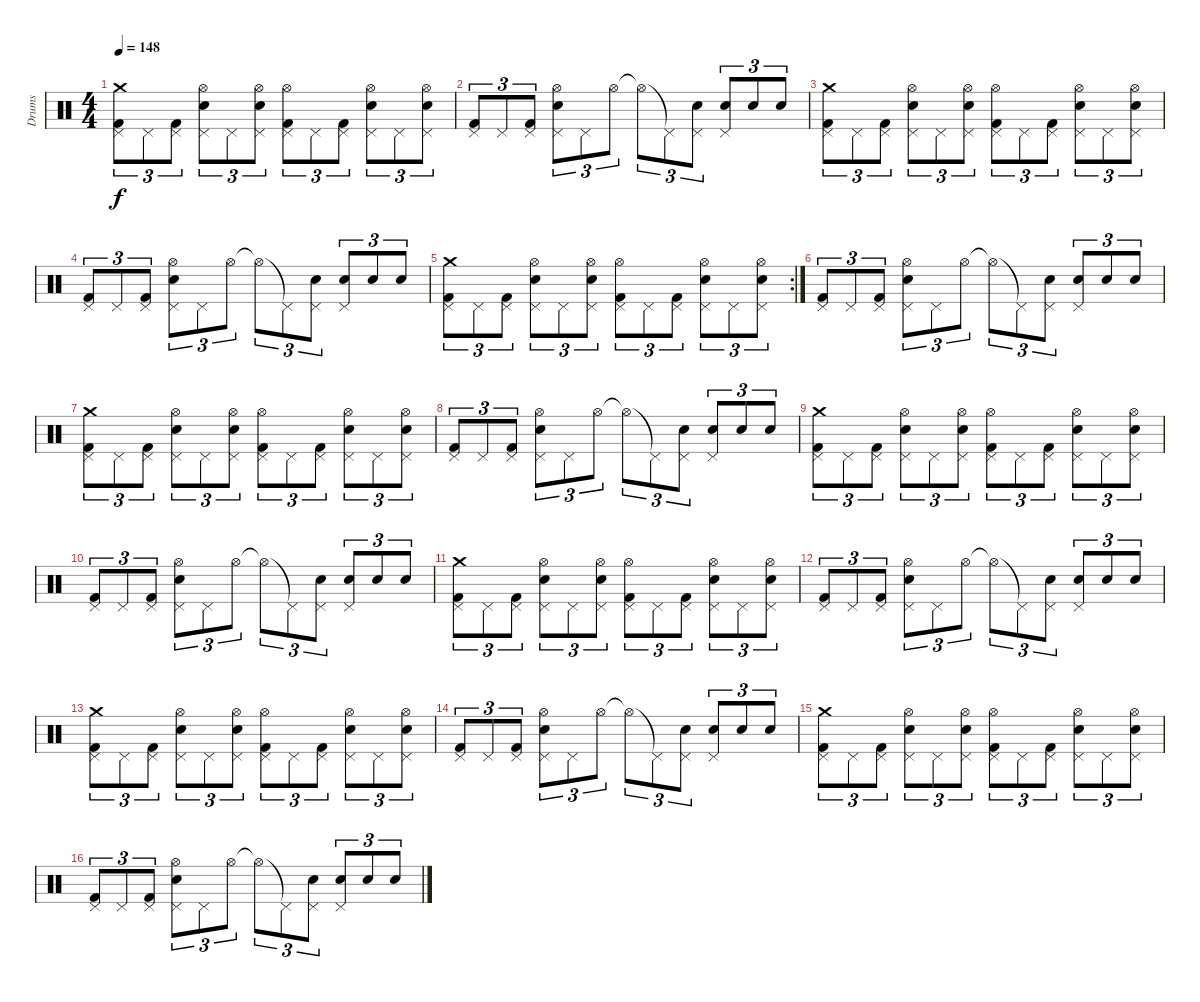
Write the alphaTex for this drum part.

\track ("Drums" "Drums") {instrument percussion}
\staff {score}
\articulation defaults
\ts (4 4)
\tempo 148
\clef neutral
\ks c
("Kick (hit) 2" "Pedal Hi-Hat (hit)" "Crash medium (hit)").8{tu (3 2) dy f} "Pedal Hi-Hat (hit)".8{tu (3 2)} ("Kick (hit) 2" "Pedal Hi-Hat (hit)").8{tu (3 2)} ("Snare (hit) 2" "Pedal Hi-Hat (hit)" "Hi-Hat (open)").8{tu (3 2)} "Pedal Hi-Hat (hit)".8{tu (3 2)} ("Snare (hit) 2" "Pedal Hi-Hat (hit)" "Hi-Hat (open)").8{tu (3 2)} ("Kick (hit) 2" "Pedal Hi-Hat (hit)" "Hi-Hat (open)").8{tu (3 2)} "Pedal Hi-Hat (hit)".8{tu (3 2)} ("Kick (hit) 2" "Pedal Hi-Hat (hit)").8{tu (3 2)} ("Snare (hit) 2" "Pedal Hi-Hat (hit)" "Hi-Hat (open)").8{tu (3 2)} "Pedal Hi-Hat (hit)".8{tu (3 2)} ("Snare (hit) 2" "Pedal Hi-Hat (hit)" "Hi-Hat (open)").8{tu (3 2)} |
("Kick (hit) 2" "Pedal Hi-Hat (hit)").8{tu (3 2)} "Pedal Hi-Hat (hit)".8{tu (3 2)} ("Kick (hit) 2" "Pedal Hi-Hat (hit)").8{tu (3 2)} ("Snare (hit) 2" "Pedal Hi-Hat (hit)" "Hi-Hat (open)").8{tu (3 2)} "Pedal Hi-Hat (hit)".8{tu (3 2)} "Hi-Hat (open)".8{tu (3 2)} "Hi-Hat (open)"{t}.8{tu (3 2)} "Pedal Hi-Hat (hit)"{t}.8{tu (3 2)} ("Snare (hit) 2" "Pedal Hi-Hat (hit)").8{tu (3 2)} ("Snare (hit) 2" "Pedal Hi-Hat (hit)").8{tu (3 2)} "Snare (hit) 2".8{tu (3 2)} "Snare (hit) 2".8{tu (3 2)} |
("Kick (hit) 2" "Pedal Hi-Hat (hit)" "Crash medium (hit)").8{tu (3 2)} "Pedal Hi-Hat (hit)".8{tu (3 2)} ("Kick (hit) 2" "Pedal Hi-Hat (hit)").8{tu (3 2)} ("Snare (hit) 2" "Pedal Hi-Hat (hit)" "Hi-Hat (open)").8{tu (3 2)} "Pedal Hi-Hat (hit)".8{tu (3 2)} ("Snare (hit) 2" "Pedal Hi-Hat (hit)" "Hi-Hat (open)").8{tu (3 2)} ("Kick (hit) 2" "Pedal Hi-Hat (hit)" "Hi-Hat (open)").8{tu (3 2)} "Pedal Hi-Hat (hit)".8{tu (3 2)} ("Kick (hit) 2" "Pedal Hi-Hat (hit)").8{tu (3 2)} ("Snare (hit) 2" "Pedal Hi-Hat (hit)" "Hi-Hat (open)").8{tu (3 2)} "Pedal Hi-Hat (hit)".8{tu (3 2)} ("Snare (hit) 2" "Pedal Hi-Hat (hit)" "Hi-Hat (open)").8{tu (3 2)} |
("Kick (hit) 2" "Pedal Hi-Hat (hit)").8{tu (3 2)} "Pedal Hi-Hat (hit)".8{tu (3 2)} ("Kick (hit) 2" "Pedal Hi-Hat (hit)").8{tu (3 2)} ("Snare (hit) 2" "Pedal Hi-Hat (hit)" "Hi-Hat (open)").8{tu (3 2)} "Pedal Hi-Hat (hit)".8{tu (3 2)} "Hi-Hat (open)".8{tu (3 2)} "Hi-Hat (open)"{t}.8{tu (3 2)} "Pedal Hi-Hat (hit)"{t}.8{tu (3 2)} ("Snare (hit) 2" "Pedal Hi-Hat (hit)").8{tu (3 2)} ("Snare (hit) 2" "Pedal Hi-Hat (hit)").8{tu (3 2)} "Snare (hit) 2".8{tu (3 2)} "Snare (hit) 2".8{tu (3 2)} |
\rc 2
("Kick (hit) 2" "Pedal Hi-Hat (hit)" "Crash medium (hit)").8{tu (3 2)} "Pedal Hi-Hat (hit)".8{tu (3 2)} ("Kick (hit) 2" "Pedal Hi-Hat (hit)").8{tu (3 2)} ("Snare (hit) 2" "Pedal Hi-Hat (hit)" "Hi-Hat (open)").8{tu (3 2)} "Pedal Hi-Hat (hit)".8{tu (3 2)} ("Snare (hit) 2" "Pedal Hi-Hat (hit)" "Hi-Hat (open)").8{tu (3 2)} ("Kick (hit) 2" "Pedal Hi-Hat (hit)" "Hi-Hat (open)").8{tu (3 2)} "Pedal Hi-Hat (hit)".8{tu (3 2)} ("Kick (hit) 2" "Pedal Hi-Hat (hit)").8{tu (3 2)} ("Snare (hit) 2" "Pedal Hi-Hat (hit)" "Hi-Hat (open)").8{tu (3 2)} "Pedal Hi-Hat (hit)".8{tu (3 2)} ("Snare (hit) 2" "Pedal Hi-Hat (hit)" "Hi-Hat (open)").8{tu (3 2)} |
("Kick (hit) 2" "Pedal Hi-Hat (hit)").8{tu (3 2)} "Pedal Hi-Hat (hit)".8{tu (3 2)} ("Kick (hit) 2" "Pedal Hi-Hat (hit)").8{tu (3 2)} ("Snare (hit) 2" "Pedal Hi-Hat (hit)" "Hi-Hat (open)").8{tu (3 2)} "Pedal Hi-Hat (hit)".8{tu (3 2)} "Hi-Hat (open)".8{tu (3 2)} "Hi-Hat (open)"{t}.8{tu (3 2)} "Pedal Hi-Hat (hit)"{t}.8{tu (3 2)} ("Snare (hit) 2" "Pedal Hi-Hat (hit)").8{tu (3 2)} ("Snare (hit) 2" "Pedal Hi-Hat (hit)").8{tu (3 2)} "Snare (hit) 2".8{tu (3 2)} "Snare (hit) 2".8{tu (3 2)} |
("Kick (hit) 2" "Pedal Hi-Hat (hit)" "Crash medium (hit)").8{tu (3 2)} "Pedal Hi-Hat (hit)".8{tu (3 2)} ("Kick (hit) 2" "Pedal Hi-Hat (hit)").8{tu (3 2)} ("Snare (hit) 2" "Pedal Hi-Hat (hit)" "Hi-Hat (open)").8{tu (3 2)} "Pedal Hi-Hat (hit)".8{tu (3 2)} ("Snare (hit) 2" "Pedal Hi-Hat (hit)" "Hi-Hat (open)").8{tu (3 2)} ("Kick (hit) 2" "Pedal Hi-Hat (hit)" "Hi-Hat (open)").8{tu (3 2)} "Pedal Hi-Hat (hit)".8{tu (3 2)} ("Kick (hit) 2" "Pedal Hi-Hat (hit)").8{tu (3 2)} ("Snare (hit) 2" "Pedal Hi-Hat (hit)" "Hi-Hat (open)").8{tu (3 2)} "Pedal Hi-Hat (hit)".8{tu (3 2)} ("Snare (hit) 2" "Pedal Hi-Hat (hit)" "Hi-Hat (open)").8{tu (3 2)} |
("Kick (hit) 2" "Pedal Hi-Hat (hit)").8{tu (3 2)} "Pedal Hi-Hat (hit)".8{tu (3 2)} ("Kick (hit) 2" "Pedal Hi-Hat (hit)").8{tu (3 2)} ("Snare (hit) 2" "Pedal Hi-Hat (hit)" "Hi-Hat (open)").8{tu (3 2)} "Pedal Hi-Hat (hit)".8{tu (3 2)} "Hi-Hat (open)".8{tu (3 2)} "Hi-Hat (open)"{t}.8{tu (3 2)} "Pedal Hi-Hat (hit)"{t}.8{tu (3 2)} ("Snare (hit) 2" "Pedal Hi-Hat (hit)").8{tu (3 2)} ("Snare (hit) 2" "Pedal Hi-Hat (hit)").8{tu (3 2)} "Snare (hit) 2".8{tu (3 2)} "Snare (hit) 2".8{tu (3 2)} |
("Kick (hit) 2" "Pedal Hi-Hat (hit)" "Crash medium (hit)").8{tu (3 2)} "Pedal Hi-Hat (hit)".8{tu (3 2)} ("Kick (hit) 2" "Pedal Hi-Hat (hit)").8{tu (3 2)} ("Snare (hit) 2" "Pedal Hi-Hat (hit)" "Hi-Hat (open)").8{tu (3 2)} "Pedal Hi-Hat (hit)".8{tu (3 2)} ("Snare (hit) 2" "Pedal Hi-Hat (hit)" "Hi-Hat (open)").8{tu (3 2)} ("Kick (hit) 2" "Pedal Hi-Hat (hit)" "Hi-Hat (open)").8{tu (3 2)} "Pedal Hi-Hat (hit)".8{tu (3 2)} ("Kick (hit) 2" "Pedal Hi-Hat (hit)").8{tu (3 2)} ("Snare (hit) 2" "Pedal Hi-Hat (hit)" "Hi-Hat (open)").8{tu (3 2)} "Pedal Hi-Hat (hit)".8{tu (3 2)} ("Snare (hit) 2" "Pedal Hi-Hat (hit)" "Hi-Hat (open)").8{tu (3 2)} |
("Kick (hit) 2" "Pedal Hi-Hat (hit)").8{tu (3 2)} "Pedal Hi-Hat (hit)".8{tu (3 2)} ("Kick (hit) 2" "Pedal Hi-Hat (hit)").8{tu (3 2)} ("Snare (hit) 2" "Pedal Hi-Hat (hit)" "Hi-Hat (open)").8{tu (3 2)} "Pedal Hi-Hat (hit)".8{tu (3 2)} "Hi-Hat (open)".8{tu (3 2)} "Hi-Hat (open)"{t}.8{tu (3 2)} "Pedal Hi-Hat (hit)"{t}.8{tu (3 2)} ("Snare (hit) 2" "Pedal Hi-Hat (hit)").8{tu (3 2)} ("Snare (hit) 2" "Pedal Hi-Hat (hit)").8{tu (3 2)} "Snare (hit) 2".8{tu (3 2)} "Snare (hit) 2".8{tu (3 2)} |
("Kick (hit) 2" "Pedal Hi-Hat (hit)" "Crash medium (hit)").8{tu (3 2)} "Pedal Hi-Hat (hit)".8{tu (3 2)} ("Kick (hit) 2" "Pedal Hi-Hat (hit)").8{tu (3 2)} ("Snare (hit) 2" "Pedal Hi-Hat (hit)" "Hi-Hat (open)").8{tu (3 2)} "Pedal Hi-Hat (hit)".8{tu (3 2)} ("Snare (hit) 2" "Pedal Hi-Hat (hit)" "Hi-Hat (open)").8{tu (3 2)} ("Kick (hit) 2" "Pedal Hi-Hat (hit)" "Hi-Hat (open)").8{tu (3 2)} "Pedal Hi-Hat (hit)".8{tu (3 2)} ("Kick (hit) 2" "Pedal Hi-Hat (hit)").8{tu (3 2)} ("Snare (hit) 2" "Pedal Hi-Hat (hit)" "Hi-Hat (open)").8{tu (3 2)} "Pedal Hi-Hat (hit)".8{tu (3 2)} ("Snare (hit) 2" "Pedal Hi-Hat (hit)" "Hi-Hat (open)").8{tu (3 2)} |
("Kick (hit) 2" "Pedal Hi-Hat (hit)").8{tu (3 2)} "Pedal Hi-Hat (hit)".8{tu (3 2)} ("Kick (hit) 2" "Pedal Hi-Hat (hit)").8{tu (3 2)} ("Snare (hit) 2" "Pedal Hi-Hat (hit)" "Hi-Hat (open)").8{tu (3 2)} "Pedal Hi-Hat (hit)".8{tu (3 2)} "Hi-Hat (open)".8{tu (3 2)} "Hi-Hat (open)"{t}.8{tu (3 2)} "Pedal Hi-Hat (hit)"{t}.8{tu (3 2)} ("Snare (hit) 2" "Pedal Hi-Hat (hit)").8{tu (3 2)} ("Snare (hit) 2" "Pedal Hi-Hat (hit)").8{tu (3 2)} "Snare (hit) 2".8{tu (3 2)} "Snare (hit) 2".8{tu (3 2)} |
("Kick (hit) 2" "Pedal Hi-Hat (hit)" "Crash medium (hit)").8{tu (3 2)} "Pedal Hi-Hat (hit)".8{tu (3 2)} ("Kick (hit) 2" "Pedal Hi-Hat (hit)").8{tu (3 2)} ("Snare (hit) 2" "Pedal Hi-Hat (hit)" "Hi-Hat (open)").8{tu (3 2)} "Pedal Hi-Hat (hit)".8{tu (3 2)} ("Snare (hit) 2" "Pedal Hi-Hat (hit)" "Hi-Hat (open)").8{tu (3 2)} ("Kick (hit) 2" "Pedal Hi-Hat (hit)" "Hi-Hat (open)").8{tu (3 2)} "Pedal Hi-Hat (hit)".8{tu (3 2)} ("Kick (hit) 2" "Pedal Hi-Hat (hit)").8{tu (3 2)} ("Snare (hit) 2" "Pedal Hi-Hat (hit)" "Hi-Hat (open)").8{tu (3 2)} "Pedal Hi-Hat (hit)".8{tu (3 2)} ("Snare (hit) 2" "Pedal Hi-Hat (hit)" "Hi-Hat (open)").8{tu (3 2)} |
("Kick (hit) 2" "Pedal Hi-Hat (hit)").8{tu (3 2)} "Pedal Hi-Hat (hit)".8{tu (3 2)} ("Kick (hit) 2" "Pedal Hi-Hat (hit)").8{tu (3 2)} ("Snare (hit) 2" "Pedal Hi-Hat (hit)" "Hi-Hat (open)").8{tu (3 2)} "Pedal Hi-Hat (hit)".8{tu (3 2)} "Hi-Hat (open)".8{tu (3 2)} "Hi-Hat (open)"{t}.8{tu (3 2)} "Pedal Hi-Hat (hit)"{t}.8{tu (3 2)} ("Snare (hit) 2" "Pedal Hi-Hat (hit)").8{tu (3 2)} ("Snare (hit) 2" "Pedal Hi-Hat (hit)").8{tu (3 2)} "Snare (hit) 2".8{tu (3 2)} "Snare (hit) 2".8{tu (3 2)} |
("Kick (hit) 2" "Pedal Hi-Hat (hit)" "Crash medium (hit)").8{tu (3 2)} "Pedal Hi-Hat (hit)".8{tu (3 2)} ("Kick (hit) 2" "Pedal Hi-Hat (hit)").8{tu (3 2)} ("Snare (hit) 2" "Pedal Hi-Hat (hit)" "Hi-Hat (open)").8{tu (3 2)} "Pedal Hi-Hat (hit)".8{tu (3 2)} ("Snare (hit) 2" "Pedal Hi-Hat (hit)" "Hi-Hat (open)").8{tu (3 2)} ("Kick (hit) 2" "Pedal Hi-Hat (hit)" "Hi-Hat (open)").8{tu (3 2)} "Pedal Hi-Hat (hit)".8{tu (3 2)} ("Kick (hit) 2" "Pedal Hi-Hat (hit)").8{tu (3 2)} ("Snare (hit) 2" "Pedal Hi-Hat (hit)" "Hi-Hat (open)").8{tu (3 2)} "Pedal Hi-Hat (hit)".8{tu (3 2)} ("Snare (hit) 2" "Pedal Hi-Hat (hit)" "Hi-Hat (open)").8{tu (3 2)} |
("Kick (hit) 2" "Pedal Hi-Hat (hit)").8{tu (3 2)} "Pedal Hi-Hat (hit)".8{tu (3 2)} ("Kick (hit) 2" "Pedal Hi-Hat (hit)").8{tu (3 2)} ("Snare (hit) 2" "Pedal Hi-Hat (hit)" "Hi-Hat (open)").8{tu (3 2)} "Pedal Hi-Hat (hit)".8{tu (3 2)} "Hi-Hat (open)".8{tu (3 2)} "Hi-Hat (open)"{t}.8{tu (3 2)} "Pedal Hi-Hat (hit)"{t}.8{tu (3 2)} ("Snare (hit) 2" "Pedal Hi-Hat (hit)").8{tu (3 2)} ("Snare (hit) 2" "Pedal Hi-Hat (hit)").8{tu (3 2)} "Snare (hit) 2".8{tu (3 2)} "Snare (hit) 2".8{tu (3 2)}
